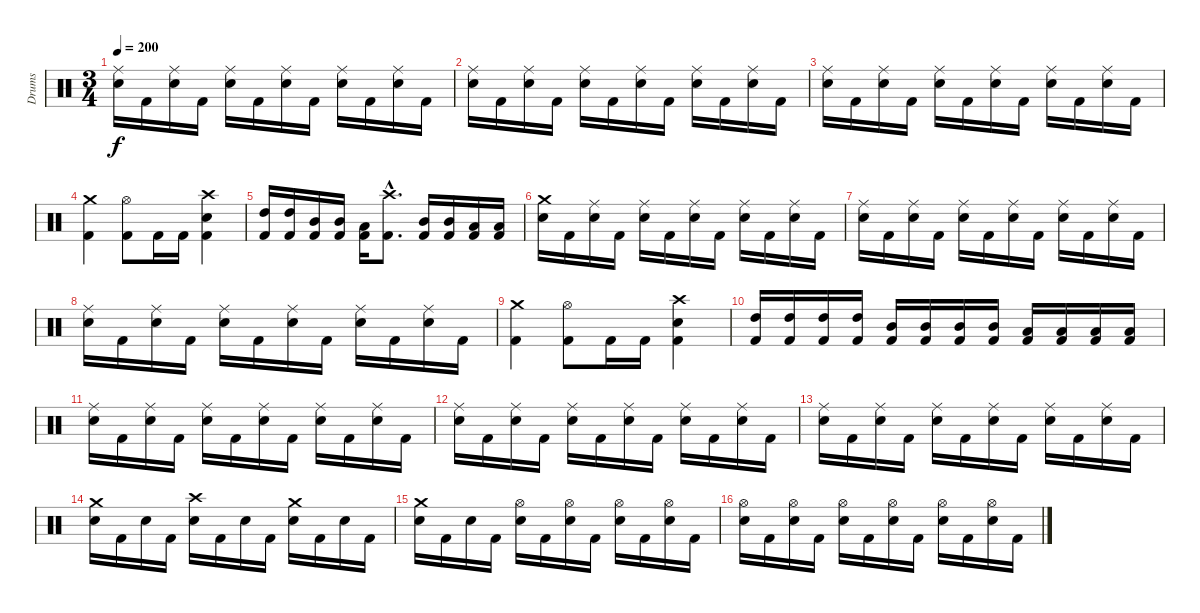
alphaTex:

\track ("Drums" "Drums") {instrument percussion}
\staff {score}
\articulation defaults
\ts (3 4)
\tempo 200
\clef neutral
\ks c
("Snare (hit) 2" "Ride (middle)").16{dy f} "Kick (hit) 2".16 ("Snare (hit) 2" "Ride (middle)").16 "Kick (hit) 2".16 ("Snare (hit) 2" "Ride (middle)").16 "Kick (hit) 2".16 ("Snare (hit) 2" "Ride (middle)").16 "Kick (hit) 2".16 ("Snare (hit) 2" "Ride (middle)").16 "Kick (hit) 2".16 ("Snare (hit) 2" "Ride (middle)").16 "Kick (hit) 2".16 |
("Snare (hit) 2" "Ride (middle)").16 "Kick (hit) 2".16 ("Snare (hit) 2" "Ride (middle)").16 "Kick (hit) 2".16 ("Snare (hit) 2" "Ride (middle)").16 "Kick (hit) 2".16 ("Snare (hit) 2" "Ride (middle)").16 "Kick (hit) 2".16 ("Snare (hit) 2" "Ride (middle)").16 "Kick (hit) 2".16 ("Snare (hit) 2" "Ride (middle)").16 "Kick (hit) 2".16 |
("Snare (hit) 2" "Ride (middle)").16 "Kick (hit) 2".16 ("Snare (hit) 2" "Ride (middle)").16 "Kick (hit) 2".16 ("Snare (hit) 2" "Ride (middle)").16 "Kick (hit) 2".16 ("Snare (hit) 2" "Ride (middle)").16 "Kick (hit) 2".16 ("Snare (hit) 2" "Ride (middle)").16 "Kick (hit) 2".16 ("Snare (hit) 2" "Ride (middle)").16 "Kick (hit) 2".16 |
("Kick (hit) 2" "Crash medium (hit)").4 ("Kick (hit) 2" "Hi-Hat (open)").8 "Kick (hit) 2".16 "Kick (hit) 2".16 ("Kick (hit) 2" "Snare (hit) 2" "Crash high (hit)").4 |
("Kick (hit) 2" "High Tom (hit)").16 ("Kick (hit) 2" "High Tom (hit)").16 ("Kick (hit) 2" "Mid Tom (hit)").16 ("Kick (hit) 2" "Mid Tom (hit)").16 ("Kick (hit) 2" "Low Tom (hit)").16 ("Kick (hit) 2"{hac} "Crash high (hit)"{hac}).8{d} ("Kick (hit) 2" "Mid Tom (hit)").16 ("Kick (hit) 2" "Mid Tom (hit)").16 ("Kick (hit) 2" "Low Tom (hit)").16 ("Kick (hit) 2" "Low Tom (hit)").16 |
("Snare (hit) 2" "Crash medium (hit)").16 "Kick (hit) 2".16 ("Snare (hit) 2" "Ride (middle)").16 "Kick (hit) 2".16 ("Snare (hit) 2" "Ride (middle)").16 "Kick (hit) 2".16 ("Snare (hit) 2" "Ride (middle)").16 "Kick (hit) 2".16 ("Snare (hit) 2" "Ride (middle)").16 "Kick (hit) 2".16 ("Snare (hit) 2" "Ride (middle)").16 "Kick (hit) 2".16 |
("Snare (hit) 2" "Ride (middle)").16 "Kick (hit) 2".16 ("Snare (hit) 2" "Ride (middle)").16 "Kick (hit) 2".16 ("Snare (hit) 2" "Ride (middle)").16 "Kick (hit) 2".16 ("Snare (hit) 2" "Ride (middle)").16 "Kick (hit) 2".16 ("Snare (hit) 2" "Ride (middle)").16 "Kick (hit) 2".16 ("Snare (hit) 2" "Ride (middle)").16 "Kick (hit) 2".16 |
("Snare (hit) 2" "Ride (middle)").16 "Kick (hit) 2".16 ("Snare (hit) 2" "Ride (middle)").16 "Kick (hit) 2".16 ("Snare (hit) 2" "Ride (middle)").16 "Kick (hit) 2".16 ("Snare (hit) 2" "Ride (middle)").16 "Kick (hit) 2".16 ("Snare (hit) 2" "Ride (middle)").16 "Kick (hit) 2".16 ("Snare (hit) 2" "Ride (middle)").16 "Kick (hit) 2".16 |
("Kick (hit) 2" "Crash medium (hit)").4 ("Kick (hit) 2" "Hi-Hat (open)").8 "Kick (hit) 2".16 "Kick (hit) 2".16 ("Kick (hit) 2" "Snare (hit) 2" "Crash high (hit)").4 |
("Kick (hit) 2" "High Tom (hit)").16 ("Kick (hit) 2" "High Tom (hit)").16 ("Kick (hit) 2" "High Tom (hit)").16 ("Kick (hit) 2" "High Tom (hit)").16 ("Kick (hit) 2" "Mid Tom (hit)").16 ("Kick (hit) 2" "Mid Tom (hit)").16 ("Kick (hit) 2" "Mid Tom (hit)").16 ("Kick (hit) 2" "Mid Tom (hit)").16 ("Kick (hit) 2" "Low Tom (hit)").16 ("Kick (hit) 2" "Low Tom (hit)").16 ("Kick (hit) 2" "Low Tom (hit)").16 ("Kick (hit) 2" "Low Tom (hit)").16 |
("Snare (hit) 2" "Ride (middle)").16 "Kick (hit) 2".16 ("Snare (hit) 2" "Ride (middle)").16 "Kick (hit) 2".16 ("Snare (hit) 2" "Ride (middle)").16 "Kick (hit) 2".16 ("Snare (hit) 2" "Ride (middle)").16 "Kick (hit) 2".16 ("Snare (hit) 2" "Ride (middle)").16 "Kick (hit) 2".16 ("Snare (hit) 2" "Ride (middle)").16 "Kick (hit) 2".16 |
("Snare (hit) 2" "Ride (middle)").16 "Kick (hit) 2".16 ("Snare (hit) 2" "Ride (middle)").16 "Kick (hit) 2".16 ("Snare (hit) 2" "Ride (middle)").16 "Kick (hit) 2".16 ("Snare (hit) 2" "Ride (middle)").16 "Kick (hit) 2".16 ("Snare (hit) 2" "Ride (middle)").16 "Kick (hit) 2".16 ("Snare (hit) 2" "Ride (middle)").16 "Kick (hit) 2".16 |
("Snare (hit) 2" "Ride (middle)").16 "Kick (hit) 2".16 ("Snare (hit) 2" "Ride (middle)").16 "Kick (hit) 2".16 ("Snare (hit) 2" "Ride (middle)").16 "Kick (hit) 2".16 ("Snare (hit) 2" "Ride (middle)").16 "Kick (hit) 2".16 ("Snare (hit) 2" "Ride (middle)").16 "Kick (hit) 2".16 ("Snare (hit) 2" "Ride (middle)").16 "Kick (hit) 2".16 |
("Snare (hit) 2" "Crash medium (hit)").16 "Kick (hit) 2".16 "Snare (hit) 2".16 "Kick (hit) 2".16 ("Snare (hit) 2" "Crash high (hit)").16 "Kick (hit) 2".16 "Snare (hit) 2".16 "Kick (hit) 2".16 ("Snare (hit) 2" "Crash medium (hit)").16 "Kick (hit) 2".16 "Snare (hit) 2".16 "Kick (hit) 2".16 |
("Snare (hit) 2" "Crash medium (hit)").16 "Kick (hit) 2".16 "Snare (hit) 2".16 "Kick (hit) 2".16 ("Snare (hit) 2" "Hi-Hat (open)").16 "Kick (hit) 2".16 ("Snare (hit) 2" "Hi-Hat (open)").16 "Kick (hit) 2".16 ("Snare (hit) 2" "Hi-Hat (open)").16 "Kick (hit) 2".16 ("Snare (hit) 2" "Hi-Hat (open)").16 "Kick (hit) 2".16 |
("Snare (hit) 2" "Hi-Hat (open)").16 "Kick (hit) 2".16 ("Snare (hit) 2" "Hi-Hat (open)").16 "Kick (hit) 2".16 ("Snare (hit) 2" "Hi-Hat (open)").16 "Kick (hit) 2".16 ("Snare (hit) 2" "Hi-Hat (open)").16 "Kick (hit) 2".16 ("Snare (hit) 2" "Hi-Hat (open)").16 "Kick (hit) 2".16 ("Snare (hit) 2" "Hi-Hat (open)").16 "Kick (hit) 2".16
